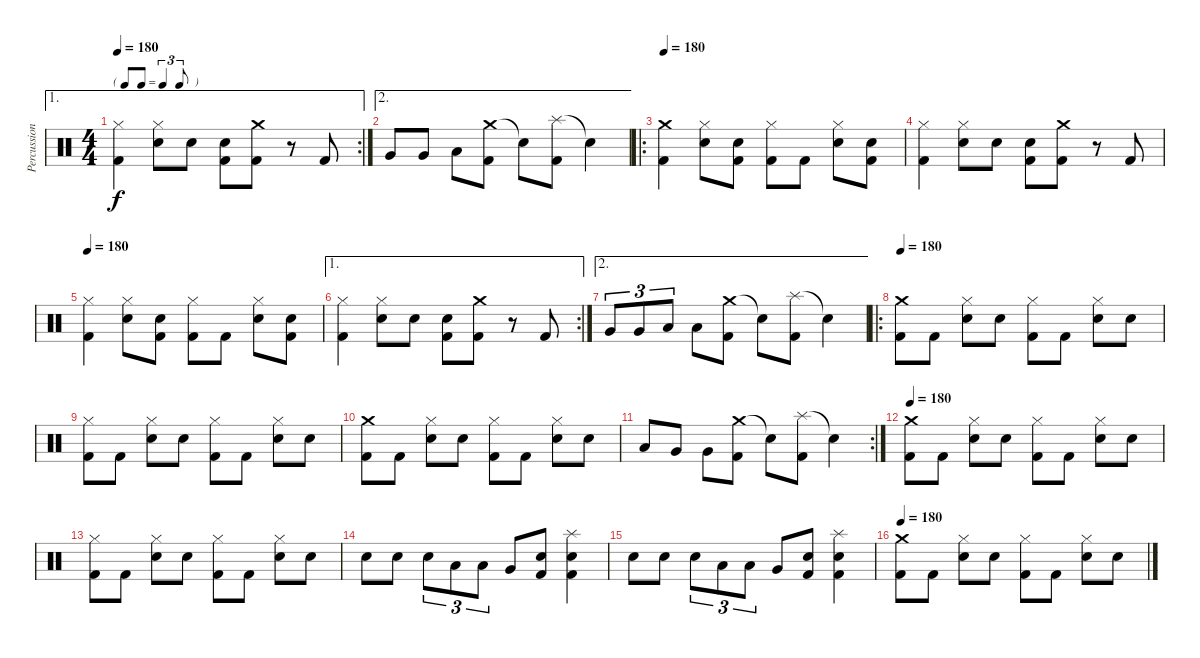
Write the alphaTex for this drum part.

\track ("Percussions" "Percussion") {instrument percussion}
\staff {score}
\articulation defaults
\ae 1
\rc 2
\ts (4 4)
\tf triplet8th
\tempo 180
\clef neutral
\ks c
("Hi-Hat (closed)" "Kick (hit) 2").4{dy f} ("Hi-Hat (closed)" "Electric Snare (hit)").8 "Electric Snare (hit)".8 ("Electric Snare (hit)" "Kick (hit) 2").8 ("Crash medium (hit)" "Kick (hit) 2").8 r.8 "Kick (hit) 2".8 |
\ae 2 "Very Low Tom (hit)".8 "Very Low Tom (hit)".8 "Low Floor Tom (hit)".8
("Crash medium (hit)" "Kick (hit) 2").8 "Snare (hit)"{t}.8 ("Splash (hit)" "Kick (hit) 2").8 "Snare (hit)"{t}.4 |
\ro
\tempo 180
("Crash medium (hit)" "Kick (hit) 2").4 ("Hi-Hat (closed)" "Electric Snare (hit)").8 ("Electric Snare (hit)" "Kick (hit) 2").8 ("Hi-Hat (closed)" "Kick (hit) 2").8 "Kick (hit) 2".8 ("Hi-Hat (closed)" "Electric Snare (hit)").8 ("Electric Snare (hit)" "Kick (hit) 2").8 |
("Hi-Hat (closed)" "Kick (hit) 2").4 ("Hi-Hat (closed)" "Electric Snare (hit)").8 "Electric Snare (hit)".8 ("Electric Snare (hit)" "Kick (hit) 2").8 ("Crash medium (hit)" "Kick (hit) 2").8 r.8 "Kick (hit) 2".8 |
\tempo 180
("Hi-Hat (closed)" "Kick (hit) 2").4 ("Hi-Hat (closed)" "Electric Snare (hit)").8 ("Electric Snare (hit)" "Kick (hit) 2").8 ("Hi-Hat (closed)" "Kick (hit) 2").8 "Kick (hit) 2".8 ("Hi-Hat (closed)" "Electric Snare (hit)").8 ("Electric Snare (hit)" "Kick (hit) 2").8 |
\ae 1
\rc 2
("Hi-Hat (closed)" "Kick (hit) 2").4 ("Hi-Hat (closed)" "Electric Snare (hit)").8 "Electric Snare (hit)".8 ("Electric Snare (hit)" "Kick (hit) 2").8 ("Crash medium (hit)" "Kick (hit) 2").8 r.8 "Kick (hit) 2".8 |
\ae 2 "Very Low Tom (hit)".8{tu (3 2)} "Very Low Tom (hit)".8{tu (3 2)} "Low Floor Tom (hit)".8{tu (3 2)} "Low Floor Tom (hit)".8
("Crash medium (hit)" "Kick (hit) 2").8 "Snare (hit)"{t}.8 ("Splash (hit)" "Kick (hit) 2").8 "Snare (hit)"{t}.4 |
\ro
\tempo 180
("Crash medium (hit)" "Kick (hit) 2").8 "Kick (hit) 2".8 ("Hi-Hat (closed)" "Electric Snare (hit)").8 "Electric Snare (hit)".8 ("Hi-Hat (closed)" "Kick (hit) 2").8 "Kick (hit) 2".8 ("Hi-Hat (closed)" "Electric Snare (hit)").8 "Electric Snare (hit)".8 |
("Hi-Hat (closed)" "Kick (hit) 2").8 "Kick (hit) 2".8 ("Hi-Hat (closed)" "Electric Snare (hit)").8 "Electric Snare (hit)".8 ("Hi-Hat (closed)" "Kick (hit) 2").8 "Kick (hit) 2".8 ("Hi-Hat (closed)" "Electric Snare (hit)").8 "Electric Snare (hit)".8 |
("Crash medium (hit)" "Kick (hit) 2").8 "Kick (hit) 2".8 ("Hi-Hat (closed)" "Electric Snare (hit)").8 "Electric Snare (hit)".8 ("Hi-Hat (closed)" "Kick (hit) 2").8 "Kick (hit) 2".8 ("Hi-Hat (closed)" "Electric Snare (hit)").8 "Electric Snare (hit)".8 |
\rc 2 "Low Tom (hit)".8 "Very Low Tom (hit)".8 "Very Low Tom (hit)".8
("Crash medium (hit)" "Kick (hit) 2").8 "Snare (hit)"{t}.8 ("Splash (hit)" "Kick (hit) 2").8 "Snare (hit)"{t}.4 |
\tempo 180
("Crash medium (hit)" "Kick (hit) 2").8 "Kick (hit) 2".8 ("Hi-Hat (closed)" "Electric Snare (hit)").8 "Electric Snare (hit)".8 ("Hi-Hat (closed)" "Kick (hit) 2").8 "Kick (hit) 2".8 ("Hi-Hat (closed)" "Electric Snare (hit)").8 "Electric Snare (hit)".8 |
("Hi-Hat (closed)" "Kick (hit) 2").8 "Kick (hit) 2".8 ("Hi-Hat (closed)" "Electric Snare (hit)").8 "Electric Snare (hit)".8 ("Hi-Hat (closed)" "Kick (hit) 2").8 "Kick (hit) 2".8 ("Hi-Hat (closed)" "Electric Snare (hit)").8 "Electric Snare (hit)".8 |
"Electric Snare (hit)".8 "Electric Snare (hit)".8 "Electric Snare (hit)".8{tu (3 2)} "Low Tom (hit)".8{tu (3 2)} "Low Tom (hit)".8{tu (3 2)} "Very Low Tom (hit)".8 ("Electric Snare (hit)" "Kick (hit) 2").8 ("Splash (hit)" "Electric Snare (hit)" "Kick (hit) 2").4 |
"Electric Snare (hit)".8 "Electric Snare (hit)".8 "Electric Snare (hit)".8{tu (3 2)} "Low Tom (hit)".8{tu (3 2)} "Low Tom (hit)".8{tu (3 2)} "Very Low Tom (hit)".8 ("Electric Snare (hit)" "Kick (hit) 2").8 ("Splash (hit)" "Electric Snare (hit)" "Kick (hit) 2").4 |
\tempo 180
("Crash medium (hit)" "Kick (hit) 2").8 "Kick (hit) 2".8 ("Hi-Hat (closed)" "Electric Snare (hit)").8 "Electric Snare (hit)".8 ("Hi-Hat (closed)" "Kick (hit) 2").8 "Kick (hit) 2".8 ("Hi-Hat (closed)" "Electric Snare (hit)").8 "Electric Snare (hit)".8
